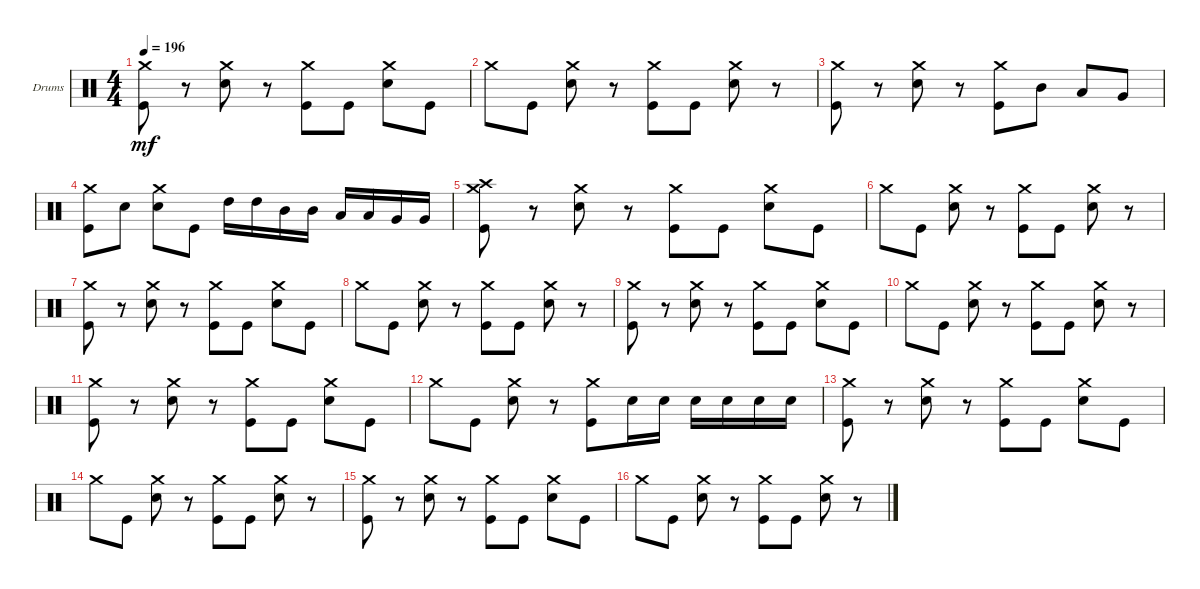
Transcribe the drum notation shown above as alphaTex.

\defaultSystemsLayout 4
\bracketExtendMode groupsimilarinstruments
\firstSystemTrackNameOrientation horizontal
\otherSystemsTrackNameOrientation horizontal
\track ("Drumkit" "Drums") {instrument percussion}
\staff {score}
\articulation defaults
\ts (4 4)
\tempo 196
\clef neutral
\ks c
("Kick (hit)" "Crash medium (hit)").8{dy mf} r.8 ("Snare (hit) 2" "Crash medium (hit)").8 r.8 ("Kick (hit)" "Crash medium (hit)").8 "Kick (hit)".8 ("Snare (hit) 2" "Crash medium (hit)").8 "Kick (hit)".8 |
"Crash medium (hit)".8 "Kick (hit)".8 ("Snare (hit) 2" "Crash medium (hit)").8 r.8 ("Kick (hit)" "Crash medium (hit)").8 "Kick (hit)".8 ("Snare (hit) 2" "Crash medium (hit)").8 r.8 |
("Kick (hit)" "Crash medium (hit)").8 r.8 ("Snare (hit) 2" "Crash medium (hit)").8 r.8 ("Kick (hit)" "Crash medium (hit)").8 "Mid Tom (hit)".8 "Low Tom (hit)".8 "Very Low Tom (hit)".8 |
("Crash medium (hit)" "Kick (hit)").8 "Snare (hit) 2".8 ("Snare (hit) 2" "Crash medium (hit)").8 "Kick (hit)".8 "High Tom (hit)".16 "High Tom (hit)".16 "Mid Tom (hit)".16 "Mid Tom (hit)".16 "Low Tom (hit)".16 "Low Tom (hit)".16 "Very Low Tom (hit)".16 "Very Low Tom (hit)".16 |
("Kick (hit)" "Crash medium (hit)" "Crash high (hit)").8 r.8 ("Snare (hit) 2" "Crash medium (hit)").8 r.8 ("Kick (hit)" "Crash medium (hit)").8 "Kick (hit)".8 ("Snare (hit) 2" "Crash medium (hit)").8 "Kick (hit)".8 |
"Crash medium (hit)".8 "Kick (hit)".8 ("Snare (hit) 2" "Crash medium (hit)").8 r.8 ("Kick (hit)" "Crash medium (hit)").8 "Kick (hit)".8 ("Snare (hit) 2" "Crash medium (hit)").8 r.8 |
("Kick (hit)" "Crash medium (hit)").8 r.8 ("Snare (hit) 2" "Crash medium (hit)").8 r.8 ("Kick (hit)" "Crash medium (hit)").8 "Kick (hit)".8 ("Snare (hit) 2" "Crash medium (hit)").8 "Kick (hit)".8 |
"Crash medium (hit)".8 "Kick (hit)".8 ("Snare (hit) 2" "Crash medium (hit)").8 r.8 ("Kick (hit)" "Crash medium (hit)").8 "Kick (hit)".8 ("Snare (hit) 2" "Crash medium (hit)").8 r.8 |
("Kick (hit)" "Crash medium (hit)").8 r.8 ("Snare (hit) 2" "Crash medium (hit)").8 r.8 ("Kick (hit)" "Crash medium (hit)").8 "Kick (hit)".8 ("Snare (hit) 2" "Crash medium (hit)").8 "Kick (hit)".8 |
"Crash medium (hit)".8 "Kick (hit)".8 ("Snare (hit) 2" "Crash medium (hit)").8 r.8 ("Kick (hit)" "Crash medium (hit)").8 "Kick (hit)".8 ("Snare (hit) 2" "Crash medium (hit)").8 r.8 |
("Kick (hit)" "Crash medium (hit)").8 r.8 ("Snare (hit) 2" "Crash medium (hit)").8 r.8 ("Kick (hit)" "Crash medium (hit)").8 "Kick (hit)".8 ("Snare (hit) 2" "Crash medium (hit)").8 "Kick (hit)".8 |
"Crash medium (hit)".8 "Kick (hit)".8 ("Snare (hit) 2" "Crash medium (hit)").8 r.8 ("Kick (hit)" "Crash medium (hit)").8 "Snare (hit) 2".16 "Snare (hit) 2".16 "Snare (hit) 2".16 "Snare (hit) 2".16 "Snare (hit) 2".16 "Snare (hit) 2".16 |
("Kick (hit)" "Crash medium (hit)").8 r.8 ("Snare (hit) 2" "Crash medium (hit)").8 r.8 ("Kick (hit)" "Crash medium (hit)").8 "Kick (hit)".8 ("Snare (hit) 2" "Crash medium (hit)").8 "Kick (hit)".8 |
"Crash medium (hit)".8 "Kick (hit)".8 ("Snare (hit) 2" "Crash medium (hit)").8 r.8 ("Kick (hit)" "Crash medium (hit)").8 "Kick (hit)".8 ("Snare (hit) 2" "Crash medium (hit)").8 r.8 |
("Kick (hit)" "Crash medium (hit)").8 r.8 ("Snare (hit) 2" "Crash medium (hit)").8 r.8 ("Kick (hit)" "Crash medium (hit)").8 "Kick (hit)".8 ("Snare (hit) 2" "Crash medium (hit)").8 "Kick (hit)".8 |
"Crash medium (hit)".8 "Kick (hit)".8 ("Snare (hit) 2" "Crash medium (hit)").8 r.8 ("Kick (hit)" "Crash medium (hit)").8 "Kick (hit)".8 ("Snare (hit) 2" "Crash medium (hit)").8 r.8
